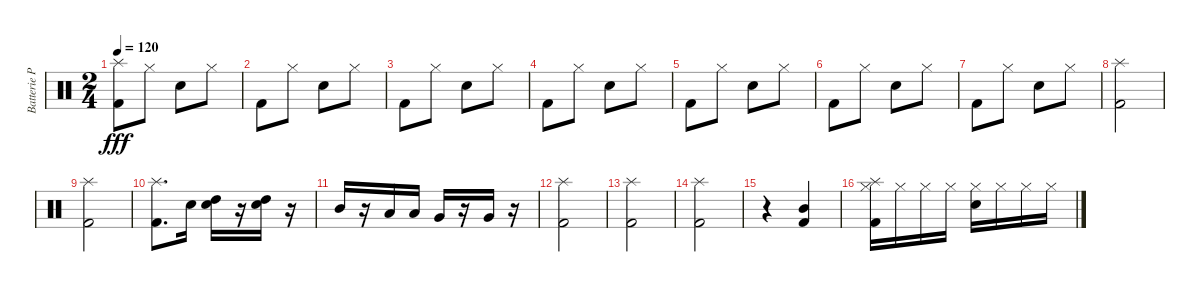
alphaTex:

\track ("Batterie Pako" "Batterie P") {instrument percussion}
\staff {score}
\articulation defaults
\ts (2 4)
\tempo 120
\clef neutral
\ks c
("Kick (hit) 2" "Splash (hit)").8{dy fff} "Hi-Hat (closed)".8 "Electric Snare (hit)".8 "Hi-Hat (closed)".8 |
"Kick (hit) 2".8 "Hi-Hat (closed)".8 "Electric Snare (hit)".8 "Hi-Hat (closed)".8 |
"Kick (hit) 2".8 "Hi-Hat (closed)".8 "Electric Snare (hit)".8 "Hi-Hat (closed)".8 |
"Kick (hit) 2".8 "Hi-Hat (closed)".8 "Electric Snare (hit)".8 "Hi-Hat (closed)".8 |
"Kick (hit) 2".8 "Hi-Hat (closed)".8 "Electric Snare (hit)".8 "Hi-Hat (closed)".8 |
"Kick (hit) 2".8 "Hi-Hat (closed)".8 "Electric Snare (hit)".8 "Hi-Hat (closed)".8 |
"Kick (hit) 2".8 "Hi-Hat (closed)".8 "Electric Snare (hit)".8 "Hi-Hat (closed)".8 |
("Kick (hit) 2" "Splash (hit)").2 |
("Kick (hit) 2" "Splash (hit)").2 |
("Kick (hit) 2" "Splash (hit)").8{d} "Electric Snare (hit)".16 ("Electric Snare (hit)" "High Tom (hit)").16 r.16 ("Electric Snare (hit)" "High Tom (hit)").16 r.16 |
"Mid Tom (hit)".16 r.16 "Low Tom (hit)".16 "Low Tom (hit)".16 "Very Low Tom (hit)".16 r.16 "Very Low Tom (hit)".16 r.16 |
("Kick (hit) 2" "Splash (hit)").2 |
("Kick (hit) 2" "Splash (hit)").2 |
("Kick (hit) 2" "Splash (hit)").2 |
r.4 ("Kick (hit) 2" "Mid Tom (hit)").4 |
("Kick (hit) 2" "Hi-Hat (closed)" "Splash (hit)").16 "Hi-Hat (closed)".16 "Hi-Hat (closed)".16 "Hi-Hat (closed)".16 ("Hi-Hat (closed)" "Electric Snare (hit)").16 "Hi-Hat (closed)".16 "Hi-Hat (closed)".16 "Hi-Hat (closed)".16
